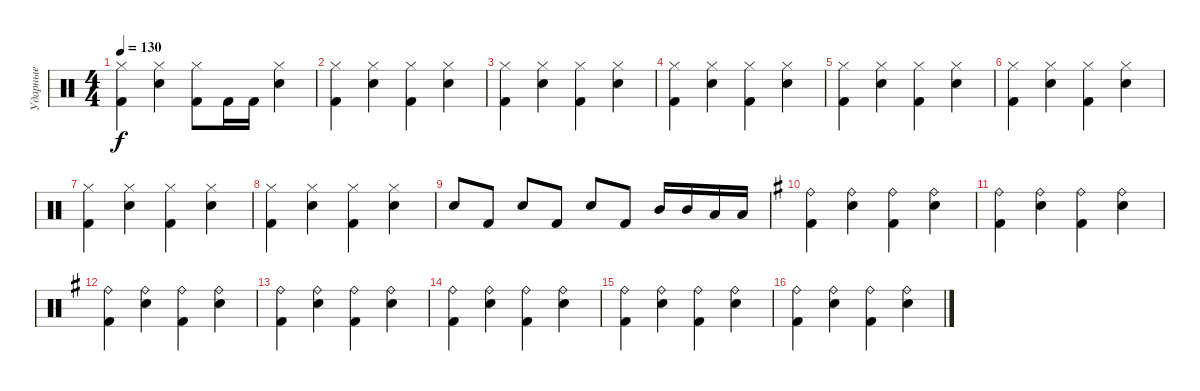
\track ("Ударные" "Ударные") {instrument percussion}
\staff {score}
\articulation defaults
\ts (4 4)
\tempo 130
\clef neutral
\ks c
("Kick (hit) 2" "Hi-Hat (closed)").4{dy f} ("Electric Snare (hit)" "Hi-Hat (closed)").4 ("Kick (hit) 2" "Hi-Hat (closed)").8 "Kick (hit) 2".16 "Kick (hit) 2".16 ("Electric Snare (hit)" "Hi-Hat (closed)").4 |
("Kick (hit) 2" "Hi-Hat (closed)").4 ("Electric Snare (hit)" "Hi-Hat (closed)").4 ("Kick (hit) 2" "Hi-Hat (closed)").4 ("Electric Snare (hit)" "Hi-Hat (closed)").4 |
("Kick (hit) 2" "Hi-Hat (closed)").4 ("Electric Snare (hit)" "Hi-Hat (closed)").4 ("Kick (hit) 2" "Hi-Hat (closed)").4 ("Electric Snare (hit)" "Hi-Hat (closed)").4 |
("Kick (hit) 2" "Hi-Hat (closed)").4 ("Electric Snare (hit)" "Hi-Hat (closed)").4 ("Kick (hit) 2" "Hi-Hat (closed)").4 ("Electric Snare (hit)" "Hi-Hat (closed)").4 |
("Kick (hit) 2" "Hi-Hat (closed)").4 ("Electric Snare (hit)" "Hi-Hat (closed)").4 ("Kick (hit) 2" "Hi-Hat (closed)").4 ("Electric Snare (hit)" "Hi-Hat (closed)").4 |
("Kick (hit) 2" "Hi-Hat (closed)").4 ("Electric Snare (hit)" "Hi-Hat (closed)").4 ("Kick (hit) 2" "Hi-Hat (closed)").4 ("Electric Snare (hit)" "Hi-Hat (closed)").4 |
("Kick (hit) 2" "Hi-Hat (closed)").4 ("Electric Snare (hit)" "Hi-Hat (closed)").4 ("Kick (hit) 2" "Hi-Hat (closed)").4 ("Electric Snare (hit)" "Hi-Hat (closed)").4 |
("Kick (hit) 2" "Hi-Hat (closed)").4 ("Electric Snare (hit)" "Hi-Hat (closed)").4 ("Kick (hit) 2" "Hi-Hat (closed)").4 ("Electric Snare (hit)" "Hi-Hat (closed)").4 |
"Electric Snare (hit)".8 "Kick (hit) 2".8 "Electric Snare (hit)".8 "Kick (hit) 2".8 "Electric Snare (hit)".8 "Kick (hit) 2".8 "Mid Tom (hit)".16 "Mid Tom (hit)".16 "Low Tom (hit)".16 "Low Tom (hit)".16 |
\ks eminor
("Kick (hit) 2" "Ride (bell)").4 ("Electric Snare (hit)" "Ride (bell)").4 ("Kick (hit) 2" "Ride (bell)").4 ("Electric Snare (hit)" "Ride (bell)").4 |
("Kick (hit) 2" "Ride (bell)").4 ("Electric Snare (hit)" "Ride (bell)").4 ("Kick (hit) 2" "Ride (bell)").4 ("Electric Snare (hit)" "Ride (bell)").4 |
("Kick (hit) 2" "Ride (bell)").4 ("Electric Snare (hit)" "Ride (bell)").4 ("Kick (hit) 2" "Ride (bell)").4 ("Electric Snare (hit)" "Ride (bell)").4 |
("Kick (hit) 2" "Ride (bell)").4 ("Electric Snare (hit)" "Ride (bell)").4 ("Kick (hit) 2" "Ride (bell)").4 ("Electric Snare (hit)" "Ride (bell)").4 |
("Kick (hit) 2" "Ride (bell)").4 ("Electric Snare (hit)" "Ride (bell)").4 ("Kick (hit) 2" "Ride (bell)").4 ("Electric Snare (hit)" "Ride (bell)").4 |
("Kick (hit) 2" "Ride (bell)").4 ("Electric Snare (hit)" "Ride (bell)").4 ("Kick (hit) 2" "Ride (bell)").4 ("Electric Snare (hit)" "Ride (bell)").4 |
("Kick (hit) 2" "Ride (bell)").4 ("Electric Snare (hit)" "Ride (bell)").4 ("Kick (hit) 2" "Ride (bell)").4 ("Electric Snare (hit)" "Ride (bell)").4
